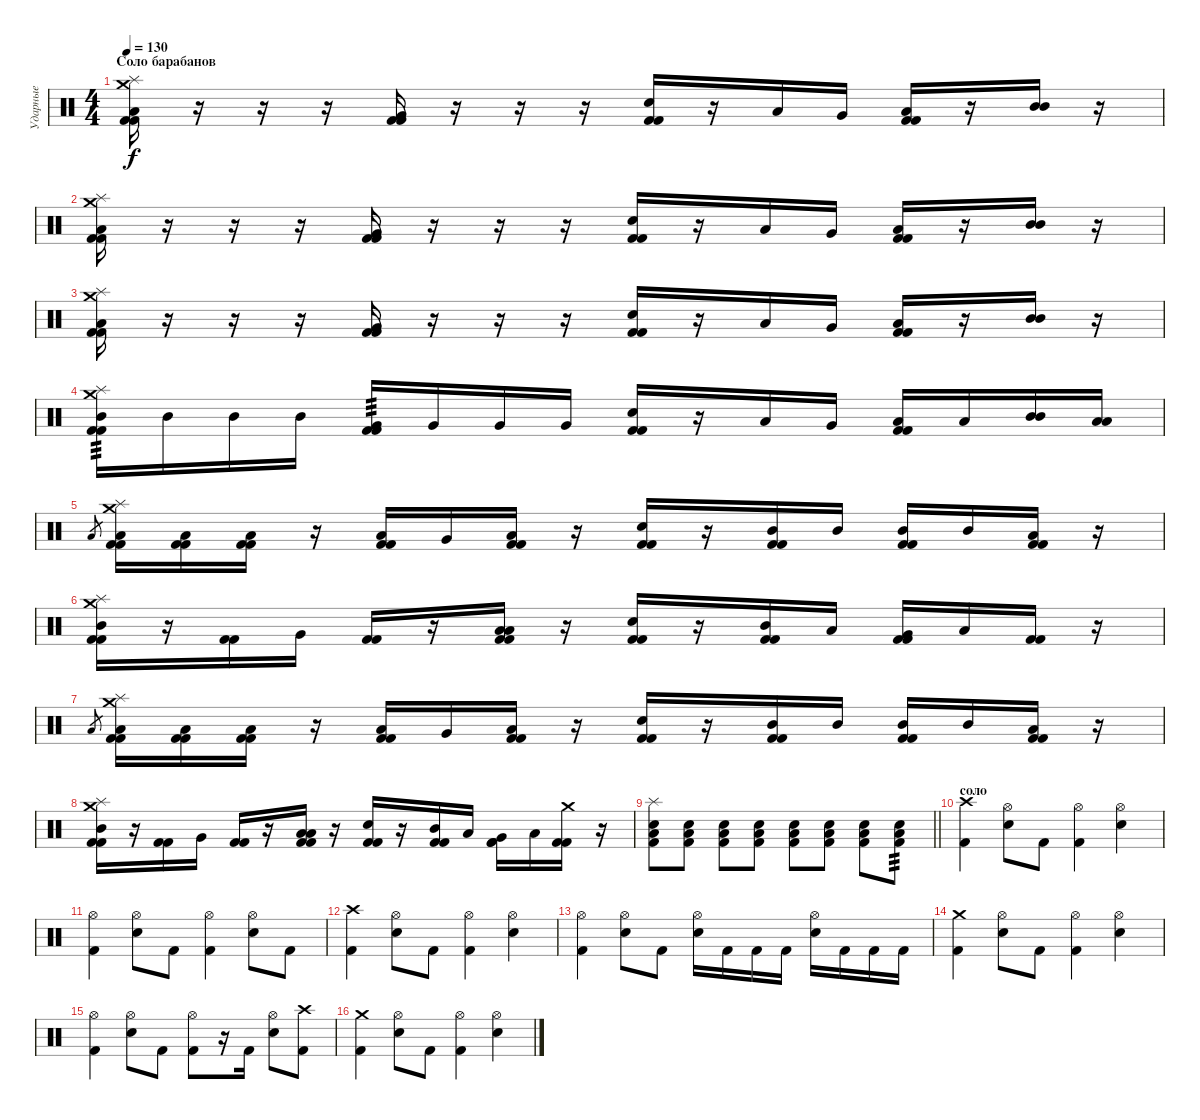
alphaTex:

\track ("Ударные" "Ударные") {instrument percussion}
\staff {score}
\articulation defaults
\ts (4 4)
\section ("" "Соло барабанов")
\tempo 130
\clef neutral
\ks c
("Crash medium (hit)" "Splash (hit)" "Low Floor Tom (hit)" "Kick (hit) 2" "Kick (hit) 2").16{dy f} r.16 r.16 r.16 ("Very Low Tom (hit)" "Kick (hit) 2" "Kick (hit) 2").16 r.16 r.16 r.16 ("Electric Snare (hit)" "Kick (hit) 2" "Kick (hit) 2").16 r.16 "Low Tom (hit)".16 "Very Low Tom (hit)".16 ("Low Floor Tom (hit)" "Kick (hit) 2" "Kick (hit) 2").16 r.16 ("Mid Tom (hit)" "Mid Tom (hit)").16 r.16 |
("Crash medium (hit)" "Splash (hit)" "Low Floor Tom (hit)" "Kick (hit) 2" "Kick (hit) 2").16 r.16 r.16 r.16 ("Very Low Tom (hit)" "Kick (hit) 2" "Kick (hit) 2").16 r.16 r.16 r.16 ("Electric Snare (hit)" "Kick (hit) 2" "Kick (hit) 2").16 r.16 "Low Tom (hit)".16 "Very Low Tom (hit)".16 ("Low Floor Tom (hit)" "Kick (hit) 2" "Kick (hit) 2").16 r.16 ("Mid Tom (hit)" "Mid Tom (hit)").16 r.16 |
("Crash medium (hit)" "Splash (hit)" "Low Floor Tom (hit)" "Kick (hit) 2" "Kick (hit) 2").16 r.16 r.16 r.16 ("Very Low Tom (hit)" "Kick (hit) 2" "Kick (hit) 2").16 r.16 r.16 r.16 ("Electric Snare (hit)" "Kick (hit) 2" "Kick (hit) 2").16 r.16 "Low Tom (hit)".16 "Very Low Tom (hit)".16 ("Low Floor Tom (hit)" "Kick (hit) 2" "Kick (hit) 2").16 r.16 ("Mid Tom (hit)" "Mid Tom (hit)").16 r.16 |
("Crash medium (hit)" "Splash (hit)" "Mid Tom (hit)" "Kick (hit) 2" "Kick (hit) 2").16{tp 3} "Mid Tom (hit)".16 "Mid Tom (hit)".16 "Mid Tom (hit)".16 ("Very Low Tom (hit)" "Kick (hit) 2" "Kick (hit) 2").16{tp 3} "Very Low Tom (hit)".16 "Very Low Tom (hit)".16 "Very Low Tom (hit)".16 ("Electric Snare (hit)" "Kick (hit) 2" "Kick (hit) 2").16 r.16 "Low Tom (hit)".16 "Very Low Tom (hit)".16 ("Low Floor Tom (hit)" "Kick (hit) 2" "Kick (hit) 2").16 "Low Floor Tom (hit)".16 ("Mid Tom (hit)" "Mid Tom (hit)").16 ("Low Tom (hit)" "Low Tom (hit)").16 |
"Low Tom (hit)".8{gr} ("Crash medium (hit)" "Splash (hit)" "Low Tom (hit)" "Kick (hit) 2" "Kick (hit) 2").16 ("Low Tom (hit)" "Kick (hit) 2" "Kick (hit) 2").16 ("Low Tom (hit)" "Kick (hit) 2" "Kick (hit) 2").16 r.16 ("Low Tom (hit)" "Kick (hit) 2" "Kick (hit) 2").16 "Very Low Tom (hit)".16 ("Low Floor Tom (hit)" "Kick (hit) 2" "Kick (hit) 2").16 r.16 ("Electric Snare (hit)" "Kick (hit) 2" "Kick (hit) 2").16 r.16 ("Mid Tom (hit)" "Kick (hit) 2" "Kick (hit) 2").16 "Mid Tom (hit)".16 ("Mid Tom (hit)" "Kick (hit) 2" "Kick (hit) 2").16 "Mid Tom (hit)".16 ("Low Tom (hit)" "Kick (hit) 2" "Kick (hit) 2").16 r.16 |
("Crash medium (hit)" "Splash (hit)" "Mid Tom (hit)" "Kick (hit) 2" "Kick (hit) 2").16 r.16 ("Kick (hit) 2" "Kick (hit) 2").16 "Very Low Tom (hit)".16 ("Kick (hit) 2" "Kick (hit) 2").16 r.16 ("Low Floor Tom (hit)" "Low Floor Tom (hit)" "Kick (hit) 2" "Kick (hit) 2").16 r.16 ("Electric Snare (hit)" "Kick (hit) 2" "Kick (hit) 2").16 r.16 ("Mid Tom (hit)" "Kick (hit) 2" "Kick (hit) 2").16 "Low Tom (hit)".16 ("Very Low Tom (hit)" "Kick (hit) 2" "Kick (hit) 2").16 "Low Floor Tom (hit)".16 ("Kick (hit) 2" "Kick (hit) 2").16 r.16 |
"Low Tom (hit)".8{gr} ("Crash medium (hit)" "Splash (hit)" "Low Tom (hit)" "Kick (hit) 2" "Kick (hit) 2").16 ("Low Tom (hit)" "Kick (hit) 2" "Kick (hit) 2").16 ("Low Tom (hit)" "Kick (hit) 2" "Kick (hit) 2").16 r.16 ("Low Tom (hit)" "Kick (hit) 2" "Kick (hit) 2").16 "Very Low Tom (hit)".16 ("Low Floor Tom (hit)" "Kick (hit) 2" "Kick (hit) 2").16 r.16 ("Electric Snare (hit)" "Kick (hit) 2" "Kick (hit) 2").16 r.16 ("Mid Tom (hit)" "Kick (hit) 2" "Kick (hit) 2").16 "Mid Tom (hit)".16 ("Mid Tom (hit)" "Kick (hit) 2" "Kick (hit) 2").16 "Mid Tom (hit)".16 ("Low Tom (hit)" "Kick (hit) 2" "Kick (hit) 2").16 r.16 |
("Crash medium (hit)" "Splash (hit)" "Mid Tom (hit)" "Kick (hit) 2" "Kick (hit) 2").16 r.16 ("Kick (hit) 2" "Kick (hit) 2").16 "Very Low Tom (hit)".16 ("Kick (hit) 2" "Kick (hit) 2").16 r.16 ("Low Floor Tom (hit)" "Low Floor Tom (hit)" "Kick (hit) 2" "Kick (hit) 2").16 r.16 ("Electric Snare (hit)" "Kick (hit) 2" "Kick (hit) 2").16 r.16 ("Mid Tom (hit)" "Kick (hit) 2" "Kick (hit) 2").16 "Low Tom (hit)".16 ("Very Low Tom (hit)" "Kick (hit) 2" "Kick (hit) 2").16 "Low Floor Tom (hit)".16 ("Crash medium (hit)" "Kick (hit) 2" "Kick (hit) 2").16 r.16 |
\barLineRight lightlight
("Splash (hit)" "Low Floor Tom (hit)" "Electric Snare (hit)" "Kick (hit) 2").8{volume 5} ("Low Floor Tom (hit)" "Electric Snare (hit)" "Kick (hit) 2").8{volume 16} ("Low Floor Tom (hit)" "Electric Snare (hit)" "Kick (hit) 2").8 ("Low Floor Tom (hit)" "Electric Snare (hit)" "Kick (hit) 2").8 ("Low Floor Tom (hit)" "Electric Snare (hit)" "Kick (hit) 2").8 ("Low Floor Tom (hit)" "Electric Snare (hit)" "Kick (hit) 2").8 ("Low Floor Tom (hit)" "Electric Snare (hit)" "Kick (hit) 2").8 ("Low Floor Tom (hit)" "Electric Snare (hit)" "Kick (hit) 2").8{tp 3} |
\section ("" "соло")
("Crash high (hit)" "Kick (hit) 2").4 ("Hi-Hat (open)" "Electric Snare (hit)").8 "Kick (hit) 2".8 ("Hi-Hat (open)" "Kick (hit) 2").4 ("Hi-Hat (open)" "Electric Snare (hit)").4 |
("Hi-Hat (open)" "Kick (hit) 2").4 ("Hi-Hat (open)" "Electric Snare (hit)").8 "Kick (hit) 2".8 ("Hi-Hat (open)" "Kick (hit) 2").4 ("Hi-Hat (open)" "Electric Snare (hit)").8 "Kick (hit) 2".8 |
("Crash high (hit)" "Kick (hit) 2").4 ("Hi-Hat (open)" "Electric Snare (hit)").8 "Kick (hit) 2".8 ("Hi-Hat (open)" "Kick (hit) 2").4 ("Hi-Hat (open)" "Electric Snare (hit)").4 |
("Hi-Hat (open)" "Kick (hit) 2").4 ("Hi-Hat (open)" "Electric Snare (hit)").8 "Kick (hit) 2".8 ("Hi-Hat (open)" "Electric Snare (hit)").16 "Kick (hit) 2".16 "Kick (hit) 2".16 "Kick (hit) 2".16 ("Hi-Hat (open)" "Electric Snare (hit)").16 "Kick (hit) 2".16 "Kick (hit) 2".16 "Kick (hit) 2".16 |
("Crash medium (hit)" "Kick (hit) 2").4 ("Hi-Hat (open)" "Electric Snare (hit)").8 "Kick (hit) 2".8 ("Hi-Hat (open)" "Kick (hit) 2").4 ("Hi-Hat (open)" "Electric Snare (hit)").4 |
("Hi-Hat (open)" "Kick (hit) 2").4 ("Hi-Hat (open)" "Electric Snare (hit)").8 "Kick (hit) 2".8 ("Hi-Hat (open)" "Kick (hit) 2").8 r.16 "Kick (hit) 2".16 ("Hi-Hat (open)" "Electric Snare (hit)").8 ("Crash high (hit)" "Kick (hit) 2").8 |
("Crash medium (hit)" "Kick (hit) 2").4 ("Hi-Hat (open)" "Electric Snare (hit)").8 "Kick (hit) 2".8 ("Hi-Hat (open)" "Kick (hit) 2").4 ("Hi-Hat (open)" "Electric Snare (hit)").4
